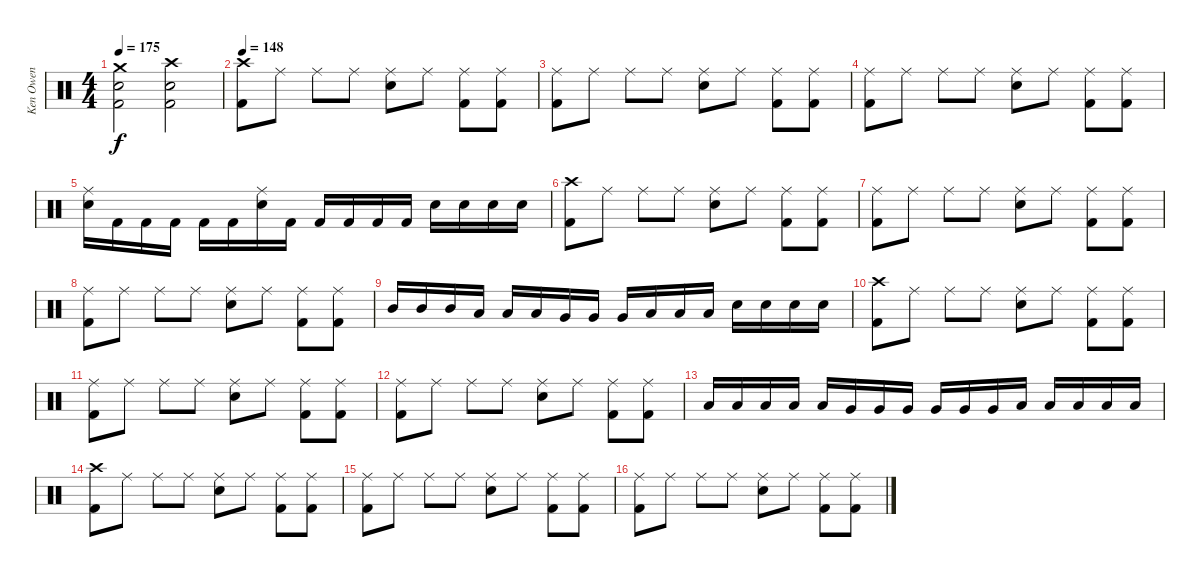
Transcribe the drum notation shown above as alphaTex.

\track ("Ken Owen" "Ken Owen") {instrument percussion}
\staff {score}
\articulation defaults
\ts (4 4)
\tempo 175
\clef neutral
\ks c
("Crash medium (hit)" "Snare (hit) 2" "Kick (hit) 2").2{dy f} ("Crash high (hit)" "Snare (hit) 2" "Kick (hit) 2").2 |
\tempo 148
("Crash high (hit)" "Kick (hit) 2").8 "Ride (middle)".8 "Ride (middle)".8 "Ride (middle)".8 ("Ride (middle)" "Snare (hit) 2").8 "Ride (middle)".8 ("Ride (middle)" "Kick (hit) 2").8 ("Ride (middle)" "Kick (hit) 2").8 |
("Ride (middle)" "Kick (hit) 2").8 "Ride (middle)".8 "Ride (middle)".8 "Ride (middle)".8 ("Ride (middle)" "Snare (hit) 2").8 "Ride (middle)".8 ("Ride (middle)" "Kick (hit) 2").8 ("Ride (middle)" "Kick (hit) 2").8 |
("Ride (middle)" "Kick (hit) 2").8 "Ride (middle)".8 "Ride (middle)".8 "Ride (middle)".8 ("Ride (middle)" "Snare (hit) 2").8 "Ride (middle)".8 ("Ride (middle)" "Kick (hit) 2").8 ("Ride (middle)" "Kick (hit) 2").8 |
("Ride (middle)" "Snare (hit) 2").16 "Kick (hit) 2".16 "Kick (hit) 2".16 "Kick (hit) 2".16 "Kick (hit) 2".16 "Kick (hit) 2".16 ("Ride (middle)" "Snare (hit) 2").16 "Kick (hit) 2".16 "Kick (hit) 2".16 "Kick (hit) 2".16 "Kick (hit) 2".16 "Kick (hit) 2".16 "Snare (hit) 2".16 "Snare (hit) 2".16 "Snare (hit) 2".16 "Snare (hit) 2".16 |
("Crash high (hit)" "Kick (hit) 2").8 "Ride (middle)".8 "Ride (middle)".8 "Ride (middle)".8 ("Ride (middle)" "Snare (hit) 2").8 "Ride (middle)".8 ("Ride (middle)" "Kick (hit) 2").8 ("Ride (middle)" "Kick (hit) 2").8 |
("Ride (middle)" "Kick (hit) 2").8 "Ride (middle)".8 "Ride (middle)".8 "Ride (middle)".8 ("Ride (middle)" "Snare (hit) 2").8 "Ride (middle)".8 ("Ride (middle)" "Kick (hit) 2").8 ("Ride (middle)" "Kick (hit) 2").8 |
("Ride (middle)" "Kick (hit) 2").8 "Ride (middle)".8 "Ride (middle)".8 "Ride (middle)".8 ("Ride (middle)" "Snare (hit) 2").8 "Ride (middle)".8 ("Ride (middle)" "Kick (hit) 2").8 ("Ride (middle)" "Kick (hit) 2").8 |
"Mid Tom (hit)".16 "Mid Tom (hit)".16 "Mid Tom (hit)".16 "Low Tom (hit)".16 "Low Tom (hit)".16 "Low Tom (hit)".16 "Very Low Tom (hit)".16 "Very Low Tom (hit)".16 "Very Low Tom (hit)".16 "Low Floor Tom (hit)".16 "Low Floor Tom (hit)".16 "Low Floor Tom (hit)".16 "Snare (hit) 2".16 "Snare (hit) 2".16 "Snare (hit) 2".16 "Snare (hit) 2".16 |
("Crash high (hit)" "Kick (hit) 2").8 "Ride (middle)".8 "Ride (middle)".8 "Ride (middle)".8 ("Ride (middle)" "Snare (hit) 2").8 "Ride (middle)".8 ("Ride (middle)" "Kick (hit) 2").8 ("Ride (middle)" "Kick (hit) 2").8 |
("Ride (middle)" "Kick (hit) 2").8 "Ride (middle)".8 "Ride (middle)".8 "Ride (middle)".8 ("Ride (middle)" "Snare (hit) 2").8 "Ride (middle)".8 ("Ride (middle)" "Kick (hit) 2").8 ("Ride (middle)" "Kick (hit) 2").8 |
("Ride (middle)" "Kick (hit) 2").8 "Ride (middle)".8 "Ride (middle)".8 "Ride (middle)".8 ("Ride (middle)" "Snare (hit) 2").8 "Ride (middle)".8 ("Ride (middle)" "Kick (hit) 2").8 ("Ride (middle)" "Kick (hit) 2").8 |
"Low Tom (hit)".16 "Low Tom (hit)".16 "Low Tom (hit)".16 "Low Tom (hit)".16 "Low Tom (hit)".16 "Very Low Tom (hit)".16 "Very Low Tom (hit)".16 "Very Low Tom (hit)".16 "Very Low Tom (hit)".16 "Very Low Tom (hit)".16 "Very Low Tom (hit)".16 "Low Floor Tom (hit)".16 "Low Floor Tom (hit)".16 "Low Floor Tom (hit)".16 "Low Floor Tom (hit)".16 "Low Floor Tom (hit)".16 |
("Crash high (hit)" "Kick (hit) 2").8 "Ride (middle)".8 "Ride (middle)".8 "Ride (middle)".8 ("Ride (middle)" "Snare (hit) 2").8 "Ride (middle)".8 ("Ride (middle)" "Kick (hit) 2").8 ("Ride (middle)" "Kick (hit) 2").8 |
("Ride (middle)" "Kick (hit) 2").8 "Ride (middle)".8 "Ride (middle)".8 "Ride (middle)".8 ("Ride (middle)" "Snare (hit) 2").8 "Ride (middle)".8 ("Ride (middle)" "Kick (hit) 2").8 ("Ride (middle)" "Kick (hit) 2").8 |
("Ride (middle)" "Kick (hit) 2").8 "Ride (middle)".8 "Ride (middle)".8 "Ride (middle)".8 ("Ride (middle)" "Snare (hit) 2").8 "Ride (middle)".8 ("Ride (middle)" "Kick (hit) 2").8 ("Ride (middle)" "Kick (hit) 2").8
